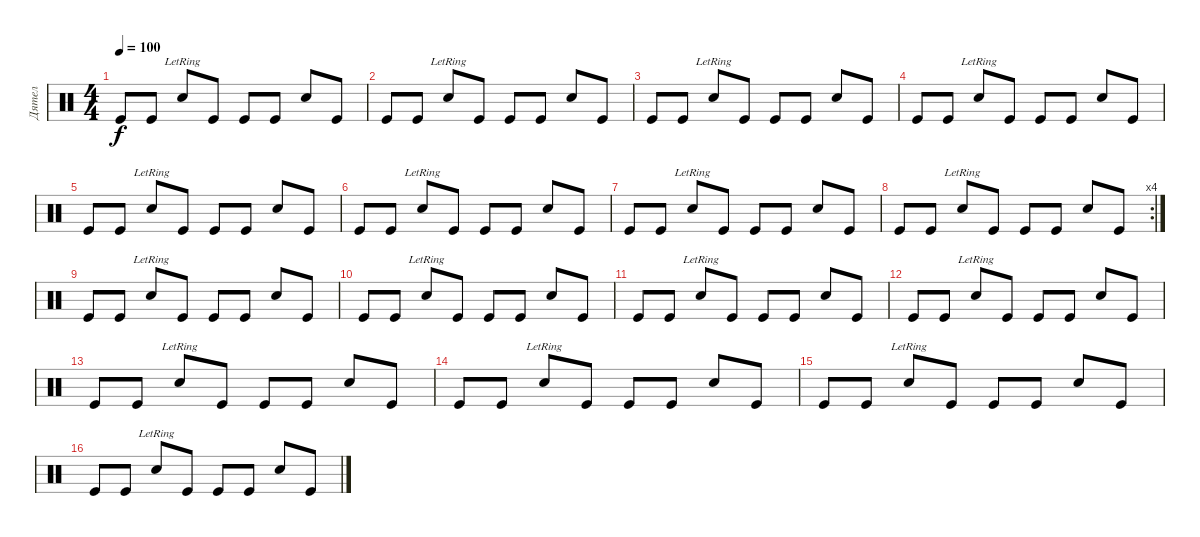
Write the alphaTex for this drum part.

\track ("Дятел" "Дятел") {instrument percussion}
\staff {score}
\articulation defaults
\ts (4 4)
\tempo 100
\clef neutral
\ks c "Kick (hit)".8{dy f} "Kick (hit)".8 "Snare (hit) 2"{lr}.8 "Kick (hit)".8 "Kick (hit)".8 "Kick (hit)".8 "Snare (hit) 2".8 "Kick (hit)".8
|
"Kick (hit)".8 "Kick (hit)".8 "Snare (hit) 2"{lr}.8 "Kick (hit)".8 "Kick (hit)".8 "Kick (hit)".8 "Snare (hit) 2".8 "Kick (hit)".8 |
"Kick (hit)".8 "Kick (hit)".8 "Snare (hit) 2"{lr}.8 "Kick (hit)".8 "Kick (hit)".8 "Kick (hit)".8 "Snare (hit) 2".8 "Kick (hit)".8 |
"Kick (hit)".8 "Kick (hit)".8 "Snare (hit) 2"{lr}.8 "Kick (hit)".8 "Kick (hit)".8 "Kick (hit)".8 "Snare (hit) 2".8 "Kick (hit)".8 |
"Kick (hit)".8 "Kick (hit)".8 "Snare (hit) 2"{lr}.8 "Kick (hit)".8 "Kick (hit)".8 "Kick (hit)".8 "Snare (hit) 2".8 "Kick (hit)".8 |
"Kick (hit)".8 "Kick (hit)".8 "Snare (hit) 2"{lr}.8 "Kick (hit)".8 "Kick (hit)".8 "Kick (hit)".8 "Snare (hit) 2".8 "Kick (hit)".8 |
"Kick (hit)".8 "Kick (hit)".8 "Snare (hit) 2"{lr}.8 "Kick (hit)".8 "Kick (hit)".8 "Kick (hit)".8 "Snare (hit) 2".8 "Kick (hit)".8 |
\rc 4 "Kick (hit)".8 "Kick (hit)".8 "Snare (hit) 2"{lr}.8 "Kick (hit)".8 "Kick (hit)".8 "Kick (hit)".8 "Snare (hit) 2".8 "Kick (hit)".8
|
"Kick (hit)".8 "Kick (hit)".8 "Snare (hit) 2"{lr}.8 "Kick (hit)".8 "Kick (hit)".8 "Kick (hit)".8 "Snare (hit) 2".8 "Kick (hit)".8 |
"Kick (hit)".8 "Kick (hit)".8 "Snare (hit) 2"{lr}.8 "Kick (hit)".8 "Kick (hit)".8 "Kick (hit)".8 "Snare (hit) 2".8 "Kick (hit)".8 |
"Kick (hit)".8 "Kick (hit)".8 "Snare (hit) 2"{lr}.8 "Kick (hit)".8 "Kick (hit)".8 "Kick (hit)".8 "Snare (hit) 2".8 "Kick (hit)".8 |
"Kick (hit)".8 "Kick (hit)".8 "Snare (hit) 2"{lr}.8 "Kick (hit)".8 "Kick (hit)".8 "Kick (hit)".8 "Snare (hit) 2".8 "Kick (hit)".8 |
"Kick (hit)".8 "Kick (hit)".8 "Snare (hit) 2"{lr}.8 "Kick (hit)".8 "Kick (hit)".8 "Kick (hit)".8 "Snare (hit) 2".8 "Kick (hit)".8 |
"Kick (hit)".8 "Kick (hit)".8 "Snare (hit) 2"{lr}.8 "Kick (hit)".8 "Kick (hit)".8 "Kick (hit)".8 "Snare (hit) 2".8 "Kick (hit)".8 |
"Kick (hit)".8 "Kick (hit)".8 "Snare (hit) 2"{lr}.8 "Kick (hit)".8 "Kick (hit)".8 "Kick (hit)".8 "Snare (hit) 2".8 "Kick (hit)".8 |
"Kick (hit)".8 "Kick (hit)".8 "Snare (hit) 2"{lr}.8 "Kick (hit)".8 "Kick (hit)".8 "Kick (hit)".8 "Snare (hit) 2".8 "Kick (hit)".8
